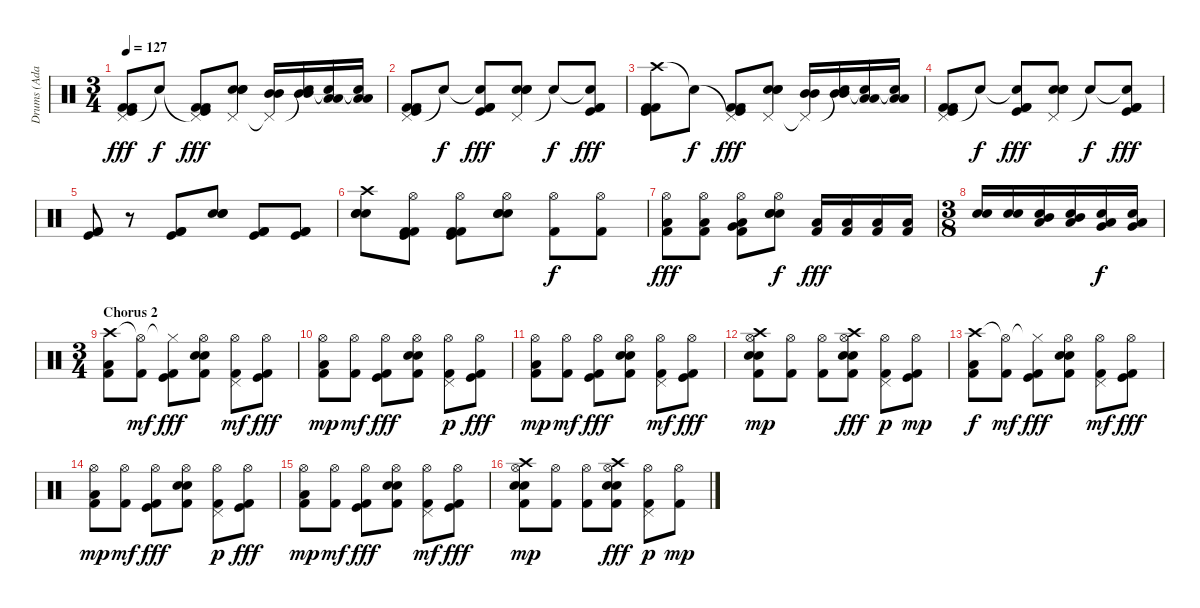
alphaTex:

\track ("Drums (Adam)" "Drums (Ada") {instrument percussion}
\staff {score}
\articulation defaults
\ts (3 4)
\tempo 127
\clef neutral
\ks c
("Pedal Hi-Hat (hit)" "Kick (hit)" "Kick (hit) 2" "Kick (hit) 2").8{dy fff} "Snare (hit)"{t}.8{dy f} ("Pedal Hi-Hat (hit)"{t} "Kick (hit)" "Kick (hit) 2" "Kick (hit) 2").8{dy fff} ("Pedal Hi-Hat (hit)" "Electric Snare (hit)" "Electric Snare (hit)" "Snare (hit) 2").8 ("Pedal Hi-Hat (hit)"{t} "Mid Tom (hit)" "Mid Tom (hit)").16 ("Snare (hit)"{t} "Mid Tom (hit)" "Mid Tom (hit)").16 ("Snare (hit)"{t} "Low Tom (hit)" "Low Tom (hit)").16 ("Snare (hit)"{t} "Low Tom (hit)" "Low Tom (hit)").16 |
("Pedal Hi-Hat (hit)" "Kick (hit)" "Kick (hit) 2" "Kick (hit) 2").8 "Snare (hit)"{t}.8{dy f} ("Snare (hit)"{t} "Kick (hit)" "Kick (hit) 2" "Kick (hit) 2").8{dy fff} ("Pedal Hi-Hat (hit)" "Electric Snare (hit)" "Electric Snare (hit)" "Snare (hit) 2").8 "Snare (hit)"{t}.8{dy f} ("Snare (hit)"{t} "Kick (hit)" "Kick (hit) 2" "Kick (hit) 2").8{dy fff} |
("Crash high (hit)" "Kick (hit)" "Kick (hit) 2" "Kick (hit) 2").8 "Snare (hit)"{t}.8{dy f} ("Pedal Hi-Hat (hit)"{t} "Kick (hit)" "Kick (hit) 2" "Kick (hit) 2").8{dy fff} ("Pedal Hi-Hat (hit)" "Electric Snare (hit)" "Electric Snare (hit)" "Snare (hit) 2").8 ("Pedal Hi-Hat (hit)"{t} "Mid Tom (hit)" "Mid Tom (hit)").16 ("Snare (hit)"{t} "Mid Tom (hit)" "Mid Tom (hit)").16 ("Snare (hit)"{t} "Low Tom (hit)" "Low Tom (hit)").16 ("Snare (hit)"{t} "Low Tom (hit)" "Low Tom (hit)").16 |
("Pedal Hi-Hat (hit)" "Kick (hit)" "Kick (hit) 2" "Kick (hit) 2").8 "Snare (hit)"{t}.8{dy f} ("Snare (hit)"{t} "Kick (hit)" "Kick (hit) 2" "Kick (hit) 2").8{dy fff} ("Pedal Hi-Hat (hit)" "Electric Snare (hit)" "Electric Snare (hit)" "Snare (hit) 2").8 "Snare (hit)"{t}.8{dy f} ("Snare (hit)"{t} "Kick (hit)" "Kick (hit) 2" "Kick (hit) 2").8{dy fff} |
("Kick (hit)" "Kick (hit) 2" "Kick (hit) 2").8 r.8 ("Kick (hit)" "Kick (hit) 2" "Kick (hit) 2").8 ("Electric Snare (hit)" "Electric Snare (hit)" "Snare (hit) 2").8 ("Kick (hit)" "Kick (hit) 2" "Kick (hit) 2").8 ("Kick (hit)" "Kick (hit) 2" "Kick (hit) 2").8 |
("Crash high (hit)" "Electric Snare (hit)" "Electric Snare (hit)" "Snare (hit) 2").8 ("Hi-Hat (open)" "Kick (hit)" "Kick (hit) 2" "Kick (hit) 2").8 ("Hi-Hat (open)" "Kick (hit)" "Kick (hit) 2" "Kick (hit) 2").8 ("Hi-Hat (open)" "Electric Snare (hit)" "Electric Snare (hit)" "Snare (hit) 2").8 ("Hi-Hat (open)" "Kick (hit) 2").8{dy f} ("Hi-Hat (open)" "Kick (hit) 2").8 |
("Hi-Hat (open)" "Low Tom (hit)" "Kick (hit) 2").8{dy fff} ("Hi-Hat (open)" "Low Tom (hit)" "Kick (hit) 2").8 ("Hi-Hat (open)" "Very Low Tom (hit)" "Low Tom (hit)" "Kick (hit) 2").8 ("Hi-Hat (open)" "Electric Snare (hit)" "Electric Snare (hit)" "Snare (hit) 2").8{dy f} ("Low Tom (hit)" "Kick (hit) 2").16{dy fff} ("Low Tom (hit)" "Kick (hit) 2").16 ("Low Tom (hit)" "Kick (hit) 2").16 ("Low Tom (hit)" "Kick (hit) 2").16 |
\ts (3 8)
("Electric Snare (hit)" "Snare (hit) 2").16 ("Electric Snare (hit)" "Snare (hit) 2").16 ("Electric Snare (hit)" "Mid Tom (hit)" "Low Tom (hit)").16 ("Electric Snare (hit)" "Mid Tom (hit)" "Low Tom (hit)").16 ("Electric Snare (hit)" "Very Low Tom (hit)" "Low Tom (hit)").16{dy f} ("Electric Snare (hit)" "Very Low Tom (hit)" "Low Tom (hit)").16 |
\ts (3 4)
\section ("" "Chorus 2")
("Crash high (hit)" "Low Tom (hit)" "Kick (hit) 2").8 ("Hi-Hat (open)"{t} "Kick (hit) 2").8{dy mf} ("Hi-Hat (closed)"{t} "Kick (hit)" "Kick (hit) 2").8{dy fff} ("Hi-Hat (open)" "Electric Snare (hit)" "Electric Snare (hit)" "Kick (hit) 2").8 ("Hi-Hat (open)" "Pedal Hi-Hat (hit)" "Kick (hit) 2").8{dy mf} ("Hi-Hat (open)" "Kick (hit)" "Kick (hit) 2").8{dy fff} |
("Hi-Hat (open)" "Low Tom (hit)" "Kick (hit) 2").8{dy mp} ("Hi-Hat (open)" "Kick (hit) 2").8{dy mf} ("Hi-Hat (open)" "Kick (hit)" "Kick (hit) 2").8{dy fff} ("Hi-Hat (open)" "Electric Snare (hit)" "Electric Snare (hit)" "Kick (hit) 2").8 ("Hi-Hat (open)" "Pedal Hi-Hat (hit)" "Kick (hit) 2").8{dy p} ("Hi-Hat (open)" "Kick (hit)" "Kick (hit) 2").8{dy fff} |
("Hi-Hat (open)" "Low Tom (hit)" "Kick (hit) 2").8{dy mp} ("Hi-Hat (open)" "Kick (hit) 2").8{dy mf} ("Hi-Hat (open)" "Kick (hit)" "Kick (hit) 2").8{dy fff} ("Hi-Hat (open)" "Electric Snare (hit)" "Electric Snare (hit)" "Kick (hit) 2").8 ("Hi-Hat (open)" "Pedal Hi-Hat (hit)" "Kick (hit) 2").8{dy mf} ("Hi-Hat (open)" "Kick (hit)" "Kick (hit) 2").8{dy fff} |
("Crash high (hit)" "Hi-Hat (open)" "Electric Snare (hit)" "Electric Snare (hit)" "Kick (hit) 2").8{dy mp} ("Hi-Hat (open)" "Kick (hit) 2").8 ("Hi-Hat (open)" "Kick (hit) 2").8 ("Crash high (hit)" "Hi-Hat (open)" "Electric Snare (hit)" "Electric Snare (hit)" "Kick (hit) 2").8{dy fff} ("Hi-Hat (open)" "Pedal Hi-Hat (hit)" "Kick (hit) 2").8{dy p} ("Hi-Hat (open)" "Kick (hit)" "Kick (hit) 2").8{dy mp} |
("Crash high (hit)" "Low Tom (hit)" "Kick (hit) 2").8{dy f} ("Hi-Hat (open)"{t} "Kick (hit) 2").8{dy mf} ("Hi-Hat (closed)"{t} "Kick (hit)" "Kick (hit) 2").8{dy fff} ("Hi-Hat (open)" "Electric Snare (hit)" "Electric Snare (hit)" "Kick (hit) 2").8 ("Hi-Hat (open)" "Pedal Hi-Hat (hit)" "Kick (hit) 2").8{dy mf} ("Hi-Hat (open)" "Kick (hit)" "Kick (hit) 2").8{dy fff} |
("Hi-Hat (open)" "Low Tom (hit)" "Kick (hit) 2").8{dy mp} ("Hi-Hat (open)" "Kick (hit) 2").8{dy mf} ("Hi-Hat (open)" "Kick (hit)" "Kick (hit) 2").8{dy fff} ("Hi-Hat (open)" "Electric Snare (hit)" "Electric Snare (hit)" "Kick (hit) 2").8 ("Hi-Hat (open)" "Pedal Hi-Hat (hit)" "Kick (hit) 2").8{dy p} ("Hi-Hat (open)" "Kick (hit)" "Kick (hit) 2").8{dy fff} |
("Hi-Hat (open)" "Low Tom (hit)" "Kick (hit) 2").8{dy mp} ("Hi-Hat (open)" "Kick (hit) 2").8{dy mf} ("Hi-Hat (open)" "Kick (hit)" "Kick (hit) 2").8{dy fff} ("Hi-Hat (open)" "Electric Snare (hit)" "Electric Snare (hit)" "Kick (hit) 2").8 ("Hi-Hat (open)" "Pedal Hi-Hat (hit)" "Kick (hit) 2").8{dy mf} ("Hi-Hat (open)" "Kick (hit)" "Kick (hit) 2").8{dy fff} |
("Crash high (hit)" "Hi-Hat (open)" "Electric Snare (hit)" "Electric Snare (hit)" "Kick (hit) 2").8{dy mp} ("Hi-Hat (open)" "Kick (hit) 2").8 ("Hi-Hat (open)" "Kick (hit) 2").8 ("Crash high (hit)" "Hi-Hat (open)" "Electric Snare (hit)" "Electric Snare (hit)" "Kick (hit) 2").8{dy fff} ("Hi-Hat (open)" "Pedal Hi-Hat (hit)" "Kick (hit) 2").8{dy p} ("Hi-Hat (open)" "Kick (hit) 2").8{dy mp}
